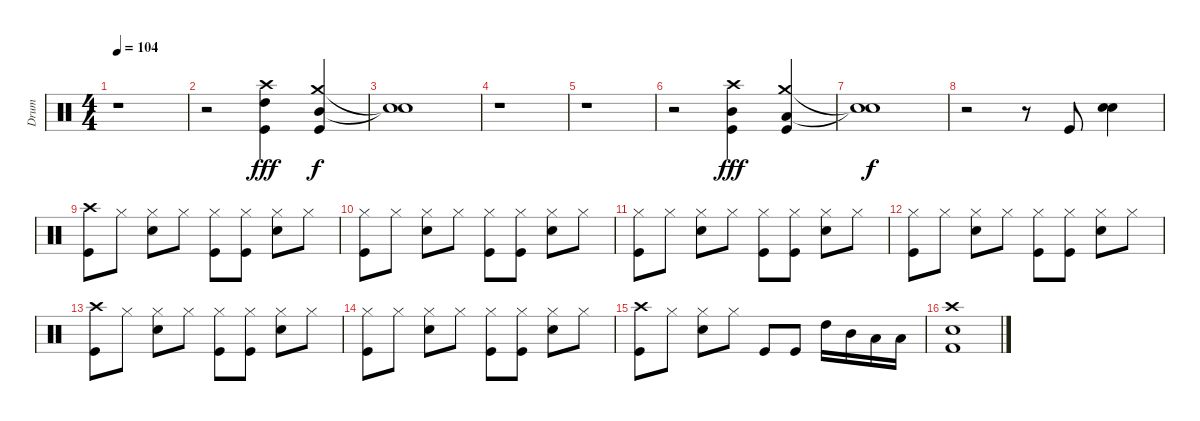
\track ("Drum" "Drum") {instrument percussion}
\staff {score}
\articulation defaults
\ts (4 4)
\tempo 104
\clef neutral
\ks c
r.1{dy fff} |
r.2 ("Crash high (hit)" "High Tom (hit)" "Kick (hit)").4 ("Crash medium (hit)" "Mid Tom (hit)" "Kick (hit)").4{dy f} |
("Snare (hit)"{t} "Snare (hit)"{t}).1 |
r.1 |
r.1 |
r.2 ("Crash high (hit)" "Mid Tom (hit)" "Kick (hit)").4{dy fff} ("Crash medium (hit)" "Low Tom (hit)" "Kick (hit)").4 |
("Snare (hit)"{t} "Snare (hit)"{t}).1{dy f} |
r.2 r.8 "Kick (hit)".8 ("Electric Snare (hit)" "Electric Snare (hit)").4 |
("Crash high (hit)" "Kick (hit)").8 "Hi-Hat (closed)".8 ("Electric Snare (hit)" "Hi-Hat (closed)").8 "Hi-Hat (closed)".8 ("Hi-Hat (closed)" "Kick (hit)").8 ("Hi-Hat (closed)" "Kick (hit)").8 ("Electric Snare (hit)" "Hi-Hat (closed)").8 "Hi-Hat (closed)".8 |
("Hi-Hat (closed)" "Kick (hit)").8 "Hi-Hat (closed)".8 ("Electric Snare (hit)" "Hi-Hat (closed)").8 "Hi-Hat (closed)".8 ("Hi-Hat (closed)" "Kick (hit)").8 ("Hi-Hat (closed)" "Kick (hit)").8 ("Electric Snare (hit)" "Hi-Hat (closed)").8 "Hi-Hat (closed)".8 |
("Hi-Hat (closed)" "Kick (hit)").8 "Hi-Hat (closed)".8 ("Electric Snare (hit)" "Hi-Hat (closed)").8 "Hi-Hat (closed)".8 ("Hi-Hat (closed)" "Kick (hit)").8 ("Hi-Hat (closed)" "Kick (hit)").8 ("Electric Snare (hit)" "Hi-Hat (closed)").8 "Hi-Hat (closed)".8 |
("Hi-Hat (closed)" "Kick (hit)").8 "Hi-Hat (closed)".8 ("Electric Snare (hit)" "Hi-Hat (closed)").8 "Hi-Hat (closed)".8 ("Hi-Hat (closed)" "Kick (hit)").8 ("Hi-Hat (closed)" "Kick (hit)").8 ("Electric Snare (hit)" "Hi-Hat (closed)").8 "Hi-Hat (closed)".8 |
("Crash high (hit)" "Kick (hit)").8 "Hi-Hat (closed)".8 ("Electric Snare (hit)" "Hi-Hat (closed)").8 "Hi-Hat (closed)".8 ("Hi-Hat (closed)" "Kick (hit)").8 ("Hi-Hat (closed)" "Kick (hit)").8 ("Electric Snare (hit)" "Hi-Hat (closed)").8 "Hi-Hat (closed)".8 |
("Hi-Hat (closed)" "Kick (hit)").8 "Hi-Hat (closed)".8 ("Electric Snare (hit)" "Hi-Hat (closed)").8 "Hi-Hat (closed)".8 ("Hi-Hat (closed)" "Kick (hit)").8 ("Hi-Hat (closed)" "Kick (hit)").8 ("Electric Snare (hit)" "Hi-Hat (closed)").8 "Hi-Hat (closed)".8 |
("Crash high (hit)" "Kick (hit)").8 "Hi-Hat (closed)".8 ("Electric Snare (hit)" "Hi-Hat (closed)").8 "Hi-Hat (closed)".8 "Kick (hit)".8 "Kick (hit)".8 "High Tom (hit)".16 "Mid Tom (hit)".16 "Low Tom (hit)".16 "Low Tom (hit)".16 |
("Crash high (hit)" "Electric Snare (hit)" "Kick (hit) 2").1
